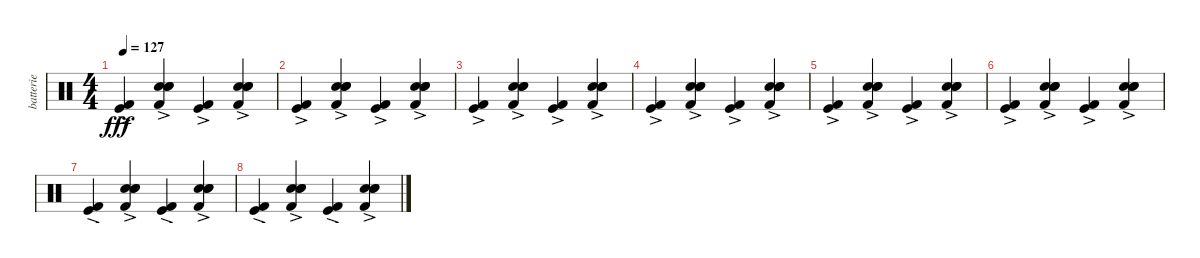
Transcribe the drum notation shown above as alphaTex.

\track ("batterie" "batterie") {instrument percussion}
\staff {score}
\articulation defaults
\ts (4 4)
\tempo 127
\clef neutral
\ks c
("Kick (hit) 2" "Kick (hit)"{ac}).4{dy fff} ("Hand Clap (hit)"{ac} "Kick (hit) 2" "Electric Snare (hit)" "Snare (hit) 2").4 ("Kick (hit) 2" "Kick (hit)"{ac}).4 ("Hand Clap (hit)"{ac} "Kick (hit) 2" "Electric Snare (hit)" "Snare (hit) 2").4 |
("Kick (hit) 2" "Kick (hit)"{ac}).4 ("Hand Clap (hit)"{ac} "Kick (hit) 2" "Electric Snare (hit)" "Snare (hit) 2").4 ("Kick (hit) 2" "Kick (hit)"{ac}).4 ("Hand Clap (hit)"{ac} "Kick (hit) 2" "Electric Snare (hit)" "Snare (hit) 2").4 |
("Kick (hit) 2" "Kick (hit)"{ac}).4 ("Hand Clap (hit)"{ac} "Kick (hit) 2" "Electric Snare (hit)" "Snare (hit) 2").4 ("Kick (hit) 2" "Kick (hit)"{ac}).4 ("Hand Clap (hit)"{ac} "Kick (hit) 2" "Electric Snare (hit)" "Snare (hit) 2").4 |
("Kick (hit) 2" "Kick (hit)"{ac}).4 ("Hand Clap (hit)"{ac} "Kick (hit) 2" "Electric Snare (hit)" "Snare (hit) 2").4 ("Kick (hit) 2" "Kick (hit)"{ac}).4 ("Hand Clap (hit)"{ac} "Kick (hit) 2" "Electric Snare (hit)" "Snare (hit) 2").4 |
("Kick (hit) 2" "Kick (hit)"{ac}).4 ("Hand Clap (hit)"{ac} "Kick (hit) 2" "Electric Snare (hit)" "Snare (hit) 2").4 ("Kick (hit) 2" "Kick (hit)"{ac}).4 ("Hand Clap (hit)"{ac} "Kick (hit) 2" "Electric Snare (hit)" "Snare (hit) 2").4 |
("Kick (hit) 2" "Kick (hit)"{ac}).4 ("Hand Clap (hit)"{ac} "Kick (hit) 2" "Electric Snare (hit)" "Snare (hit) 2").4 ("Kick (hit) 2" "Kick (hit)"{ac}).4 ("Hand Clap (hit)"{ac} "Kick (hit) 2" "Electric Snare (hit)" "Snare (hit) 2").4 |
("Kick (hit) 2" "Kick (hit)"{ac}).4 ("Hand Clap (hit)"{ac} "Kick (hit) 2" "Electric Snare (hit)" "Snare (hit) 2").4 ("Kick (hit) 2" "Kick (hit)"{ac}).4 ("Hand Clap (hit)"{ac} "Kick (hit) 2" "Electric Snare (hit)" "Snare (hit) 2").4 |
("Kick (hit) 2" "Kick (hit)"{ac}).4 ("Hand Clap (hit)"{ac} "Kick (hit) 2" "Electric Snare (hit)" "Snare (hit) 2").4 ("Kick (hit) 2" "Kick (hit)"{ac}).4 ("Hand Clap (hit)"{ac} "Kick (hit) 2" "Electric Snare (hit)" "Snare (hit) 2").4
